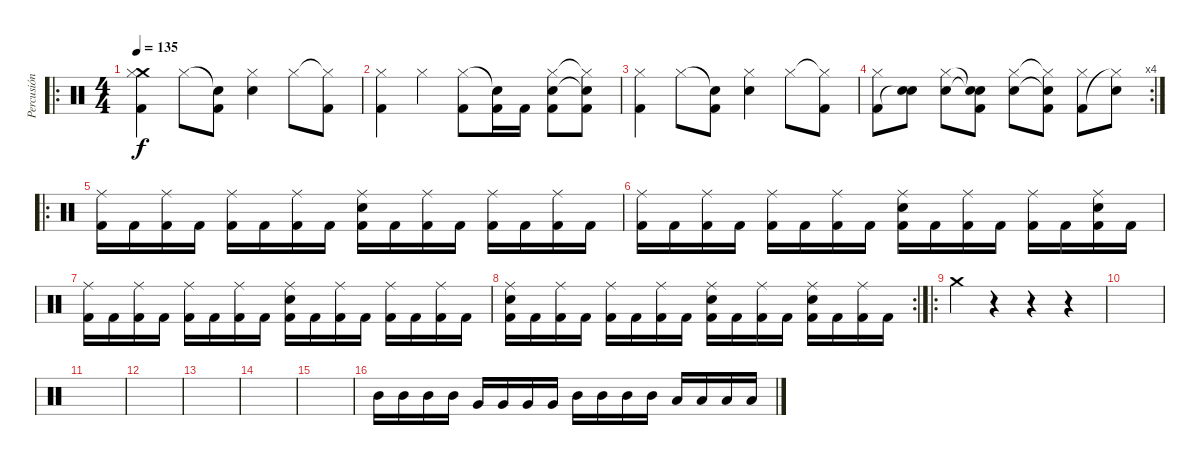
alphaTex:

\track ("Percusión" "Percusión") {instrument percussion}
\staff {score}
\articulation defaults
\ro
\ts (4 4)
\tempo 135
\clef neutral
\ks c
("Crash medium (hit)" "Hi-Hat (closed)" "Kick (hit) 2").4{dy f} "Hi-Hat (closed)".8 ("Snare (hit)"{t} "Kick (hit) 2").8 ("Snare (hit) 2" "Hi-Hat (closed)").4 "Hi-Hat (closed)".8 ("Hi-Hat (closed)"{t} "Kick (hit) 2").8 |
("Hi-Hat (closed)" "Kick (hit) 2").4 "Hi-Hat (closed)".4 ("Hi-Hat (closed)" "Kick (hit) 2").8 ("Snare (hit)"{t} "Kick (hit) 2").16 "Kick (hit) 2".16 ("Snare (hit) 2" "Hi-Hat (closed)" "Kick (hit) 2").8 ("Snare (hit) 2"{t} "Hi-Hat (closed)"{t} "Kick (hit) 2").8 |
("Hi-Hat (closed)" "Kick (hit) 2").4 "Hi-Hat (closed)".8 ("Snare (hit)"{t} "Kick (hit) 2").8 ("Snare (hit) 2" "Hi-Hat (closed)").4 "Hi-Hat (closed)".8 ("Hi-Hat (closed)"{t} "Kick (hit) 2").8 |
\rc 4
("Hi-Hat (closed)" "Kick (hit) 2").8 ("Snare (hit) 2" "Snare (hit)"{t}).8 ("Snare (hit) 2" "Hi-Hat (closed)").8 ("Snare (hit)"{t} "Snare (hit)"{t} "Kick (hit) 2").8 ("Snare (hit) 2" "Hi-Hat (closed)").8 ("Snare (hit) 2"{t} "Hi-Hat (closed)"{t} "Kick (hit) 2").8 ("Hi-Hat (closed)" "Kick (hit) 2").8 ("Snare (hit) 2" "Hi-Hat (closed)"{t}).8 |
\ro
("Kick (hit) 2" "Ride (middle)").16 "Kick (hit) 2".16 ("Kick (hit) 2" "Ride (middle)").16 "Kick (hit) 2".16 ("Kick (hit) 2" "Ride (middle)").16 "Kick (hit) 2".16 ("Kick (hit) 2" "Ride (middle)").16 "Kick (hit) 2".16 ("Snare (hit) 2" "Kick (hit) 2" "Ride (middle)").16 "Kick (hit) 2".16 ("Kick (hit) 2" "Ride (middle)").16 "Kick (hit) 2".16 ("Kick (hit) 2" "Ride (middle)").16 "Kick (hit) 2".16 ("Kick (hit) 2" "Ride (middle)").16 "Kick (hit) 2".16 |
("Kick (hit) 2" "Ride (middle)").16 "Kick (hit) 2".16 ("Kick (hit) 2" "Ride (middle)").16 "Kick (hit) 2".16 ("Kick (hit) 2" "Ride (middle)").16 "Kick (hit) 2".16 ("Kick (hit) 2" "Ride (middle)").16 "Kick (hit) 2".16 ("Snare (hit) 2" "Kick (hit) 2" "Ride (middle)").16 "Kick (hit) 2".16 ("Kick (hit) 2" "Ride (middle)").16 "Kick (hit) 2".16 ("Kick (hit) 2" "Ride (middle)").16 "Kick (hit) 2".16 ("Snare (hit) 2" "Kick (hit) 2" "Ride (middle)").16 "Kick (hit) 2".16 |
("Kick (hit) 2" "Ride (middle)").16 "Kick (hit) 2".16 ("Kick (hit) 2" "Ride (middle)").16 "Kick (hit) 2".16 ("Kick (hit) 2" "Ride (middle)").16 "Kick (hit) 2".16 ("Kick (hit) 2" "Ride (middle)").16 "Kick (hit) 2".16 ("Snare (hit) 2" "Kick (hit) 2" "Ride (middle)").16 "Kick (hit) 2".16 ("Kick (hit) 2" "Ride (middle)").16 "Kick (hit) 2".16 ("Kick (hit) 2" "Ride (middle)").16 "Kick (hit) 2".16 ("Kick (hit) 2" "Ride (middle)").16 "Kick (hit) 2".16 |
\rc 2
("Snare (hit) 2" "Kick (hit) 2" "Ride (middle)").16 "Kick (hit) 2".16 ("Kick (hit) 2" "Ride (middle)").16 "Kick (hit) 2".16 ("Kick (hit) 2" "Ride (middle)").16 "Kick (hit) 2".16 ("Kick (hit) 2" "Ride (middle)").16 "Kick (hit) 2".16 ("Snare (hit) 2" "Kick (hit) 2" "Ride (middle)").16 "Kick (hit) 2".16 ("Kick (hit) 2" "Ride (middle)").16 "Kick (hit) 2".16 ("Snare (hit) 2" "Kick (hit) 2" "Ride (middle)").16 "Kick (hit) 2".16 ("Kick (hit) 2" "Ride (middle)").16 "Kick (hit) 2".16 |
\ro "Crash medium (hit)".4
r.4 r.4 r.4 |
|
|
|
|
|
|
"Mid Tom (hit)".16 "Mid Tom (hit)".16 "Mid Tom (hit)".16 "Mid Tom (hit)".16 "Very Low Tom (hit)".16 "Very Low Tom (hit)".16 "Very Low Tom (hit)".16 "Very Low Tom (hit)".16 "Mid Tom (hit)".16 "Mid Tom (hit)".16 "Mid Tom (hit)".16 "Mid Tom (hit)".16 "Low Tom (hit)".16 "Low Tom (hit)".16 "Low Tom (hit)".16 "Low Tom (hit)".16
